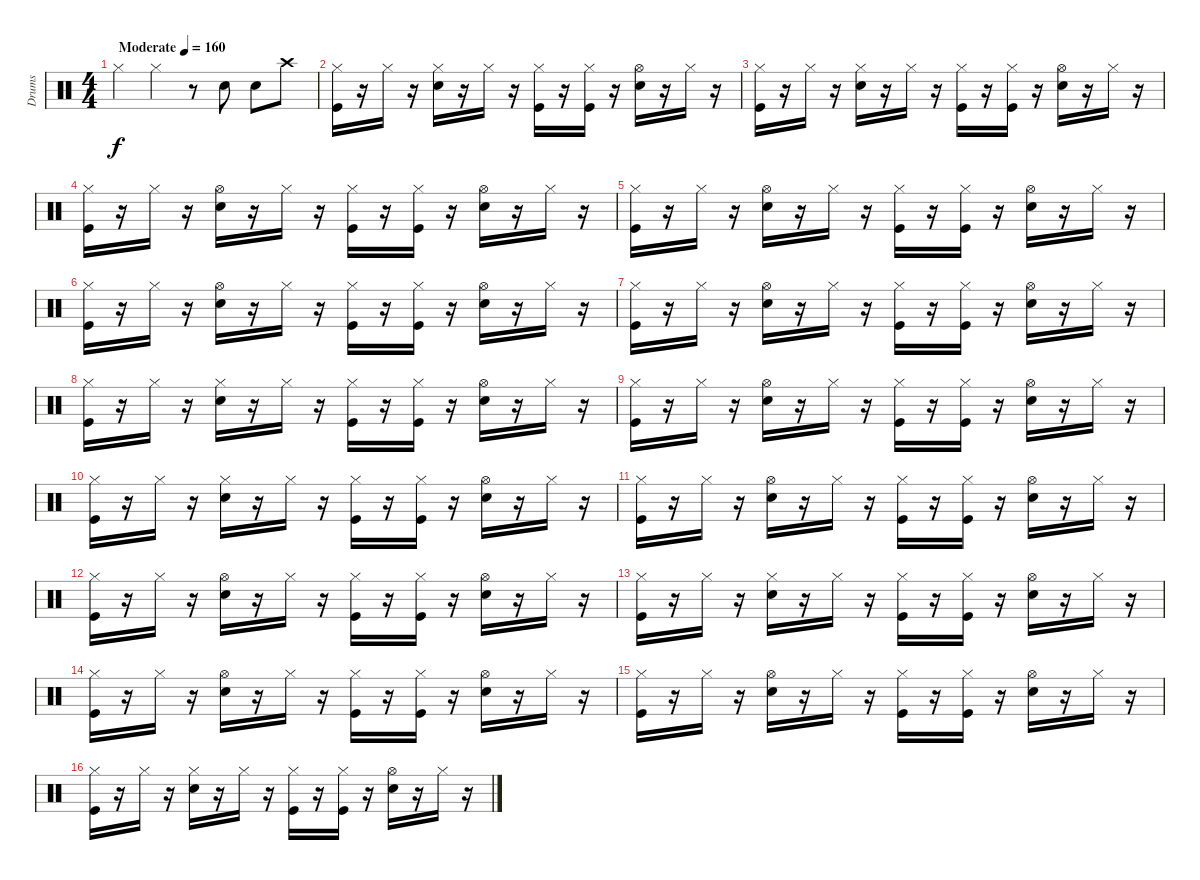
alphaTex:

\track ("Drums" "Drums") {instrument percussion}
\staff {score}
\articulation defaults
\ts (4 4)
\tempo (160 "Moderate")
\clef neutral
\ks c "Hi-Hat (closed)".4{dy f} "Hi-Hat (closed)".4
r.8 "Snare (hit) 2".8 "Snare (hit) 2".8 "Crash high (hit)".8 |
("Hi-Hat (closed)" "Kick (hit)").16 r.16 "Hi-Hat (closed)".16 r.16 ("Hi-Hat (closed)" "Snare (hit) 2").16 r.16 "Hi-Hat (closed)".16 r.16 ("Hi-Hat (closed)" "Kick (hit)").16 r.16 ("Kick (hit)" "Hi-Hat (closed)").16 r.16 ("Hi-Hat (open)" "Snare (hit) 2").16 r.16 "Hi-Hat (closed)".16 r.16 |
("Hi-Hat (closed)" "Kick (hit)").16 r.16 "Hi-Hat (closed)".16 r.16 ("Hi-Hat (closed)" "Snare (hit) 2").16 r.16 "Hi-Hat (closed)".16 r.16 ("Hi-Hat (closed)" "Kick (hit)").16 r.16 ("Kick (hit)" "Hi-Hat (closed)").16 r.16 ("Hi-Hat (open)" "Snare (hit) 2").16 r.16 "Hi-Hat (closed)".16 r.16 |
("Hi-Hat (closed)" "Kick (hit)").16 r.16 "Hi-Hat (closed)".16 r.16 ("Hi-Hat (open)" "Snare (hit) 2").16 r.16 "Hi-Hat (closed)".16 r.16 ("Hi-Hat (closed)" "Kick (hit)").16 r.16 ("Kick (hit)" "Hi-Hat (closed)").16 r.16 ("Hi-Hat (open)" "Snare (hit) 2").16 r.16 "Hi-Hat (closed)".16 r.16 |
("Hi-Hat (closed)" "Kick (hit)").16 r.16 "Hi-Hat (closed)".16 r.16 ("Hi-Hat (open)" "Snare (hit) 2").16 r.16 "Hi-Hat (closed)".16 r.16 ("Hi-Hat (closed)" "Kick (hit)").16 r.16 ("Kick (hit)" "Hi-Hat (closed)").16 r.16 ("Hi-Hat (open)" "Snare (hit) 2").16 r.16 "Hi-Hat (closed)".16 r.16 |
("Hi-Hat (closed)" "Kick (hit)").16 r.16 "Hi-Hat (closed)".16 r.16 ("Hi-Hat (open)" "Snare (hit) 2").16 r.16 "Hi-Hat (closed)".16 r.16 ("Hi-Hat (closed)" "Kick (hit)").16 r.16 ("Kick (hit)" "Hi-Hat (closed)").16 r.16 ("Hi-Hat (open)" "Snare (hit) 2").16 r.16 "Hi-Hat (closed)".16 r.16 |
("Hi-Hat (closed)" "Kick (hit)").16 r.16 "Hi-Hat (closed)".16 r.16 ("Hi-Hat (open)" "Snare (hit) 2").16 r.16 "Hi-Hat (closed)".16 r.16 ("Hi-Hat (closed)" "Kick (hit)").16 r.16 ("Kick (hit)" "Hi-Hat (closed)").16 r.16 ("Hi-Hat (open)" "Snare (hit) 2").16 r.16 "Hi-Hat (closed)".16 r.16 |
("Hi-Hat (closed)" "Kick (hit)").16 r.16 "Hi-Hat (closed)".16 r.16 ("Hi-Hat (closed)" "Snare (hit) 2").16 r.16 "Hi-Hat (closed)".16 r.16 ("Hi-Hat (closed)" "Kick (hit)").16 r.16 ("Kick (hit)" "Hi-Hat (closed)").16 r.16 ("Hi-Hat (open)" "Snare (hit) 2").16 r.16 "Hi-Hat (closed)".16 r.16 |
("Hi-Hat (closed)" "Kick (hit)").16 r.16 "Hi-Hat (closed)".16 r.16 ("Hi-Hat (open)" "Snare (hit) 2").16 r.16 "Hi-Hat (closed)".16 r.16 ("Hi-Hat (closed)" "Kick (hit)").16 r.16 ("Kick (hit)" "Hi-Hat (closed)").16 r.16 ("Hi-Hat (open)" "Snare (hit) 2").16 r.16 "Hi-Hat (closed)".16 r.16 |
("Hi-Hat (closed)" "Kick (hit)").16 r.16 "Hi-Hat (closed)".16 r.16 ("Hi-Hat (closed)" "Snare (hit) 2").16 r.16 "Hi-Hat (closed)".16 r.16 ("Hi-Hat (closed)" "Kick (hit)").16 r.16 ("Kick (hit)" "Hi-Hat (closed)").16 r.16 ("Hi-Hat (open)" "Snare (hit) 2").16 r.16 "Hi-Hat (closed)".16 r.16 |
("Hi-Hat (closed)" "Kick (hit)").16 r.16 "Hi-Hat (closed)".16 r.16 ("Hi-Hat (open)" "Snare (hit) 2").16 r.16 "Hi-Hat (closed)".16 r.16 ("Hi-Hat (closed)" "Kick (hit)").16 r.16 ("Kick (hit)" "Hi-Hat (closed)").16 r.16 ("Hi-Hat (open)" "Snare (hit) 2").16 r.16 "Hi-Hat (closed)".16 r.16 |
("Hi-Hat (closed)" "Kick (hit)").16 r.16 "Hi-Hat (closed)".16 r.16 ("Hi-Hat (open)" "Snare (hit) 2").16 r.16 "Hi-Hat (closed)".16 r.16 ("Hi-Hat (closed)" "Kick (hit)").16 r.16 ("Kick (hit)" "Hi-Hat (closed)").16 r.16 ("Hi-Hat (open)" "Snare (hit) 2").16 r.16 "Hi-Hat (closed)".16 r.16 |
("Hi-Hat (closed)" "Kick (hit)").16 r.16 "Hi-Hat (closed)".16 r.16 ("Hi-Hat (closed)" "Snare (hit) 2").16 r.16 "Hi-Hat (closed)".16 r.16 ("Hi-Hat (closed)" "Kick (hit)").16 r.16 ("Kick (hit)" "Hi-Hat (closed)").16 r.16 ("Hi-Hat (open)" "Snare (hit) 2").16 r.16 "Hi-Hat (closed)".16 r.16 |
("Hi-Hat (closed)" "Kick (hit)").16 r.16 "Hi-Hat (closed)".16 r.16 ("Hi-Hat (open)" "Snare (hit) 2").16 r.16 "Hi-Hat (closed)".16 r.16 ("Hi-Hat (closed)" "Kick (hit)").16 r.16 ("Kick (hit)" "Hi-Hat (closed)").16 r.16 ("Hi-Hat (open)" "Snare (hit) 2").16 r.16 "Hi-Hat (closed)".16 r.16 |
("Hi-Hat (closed)" "Kick (hit)").16 r.16 "Hi-Hat (closed)".16 r.16 ("Hi-Hat (open)" "Snare (hit) 2").16 r.16 "Hi-Hat (closed)".16 r.16 ("Hi-Hat (closed)" "Kick (hit)").16 r.16 ("Kick (hit)" "Hi-Hat (closed)").16 r.16 ("Hi-Hat (open)" "Snare (hit) 2").16 r.16 "Hi-Hat (closed)".16 r.16 |
("Hi-Hat (closed)" "Kick (hit)").16 r.16 "Hi-Hat (closed)".16 r.16 ("Hi-Hat (closed)" "Snare (hit) 2").16 r.16 "Hi-Hat (closed)".16 r.16 ("Hi-Hat (closed)" "Kick (hit)").16 r.16 ("Kick (hit)" "Hi-Hat (closed)").16 r.16 ("Hi-Hat (open)" "Snare (hit) 2").16 r.16 "Hi-Hat (closed)".16 r.16
